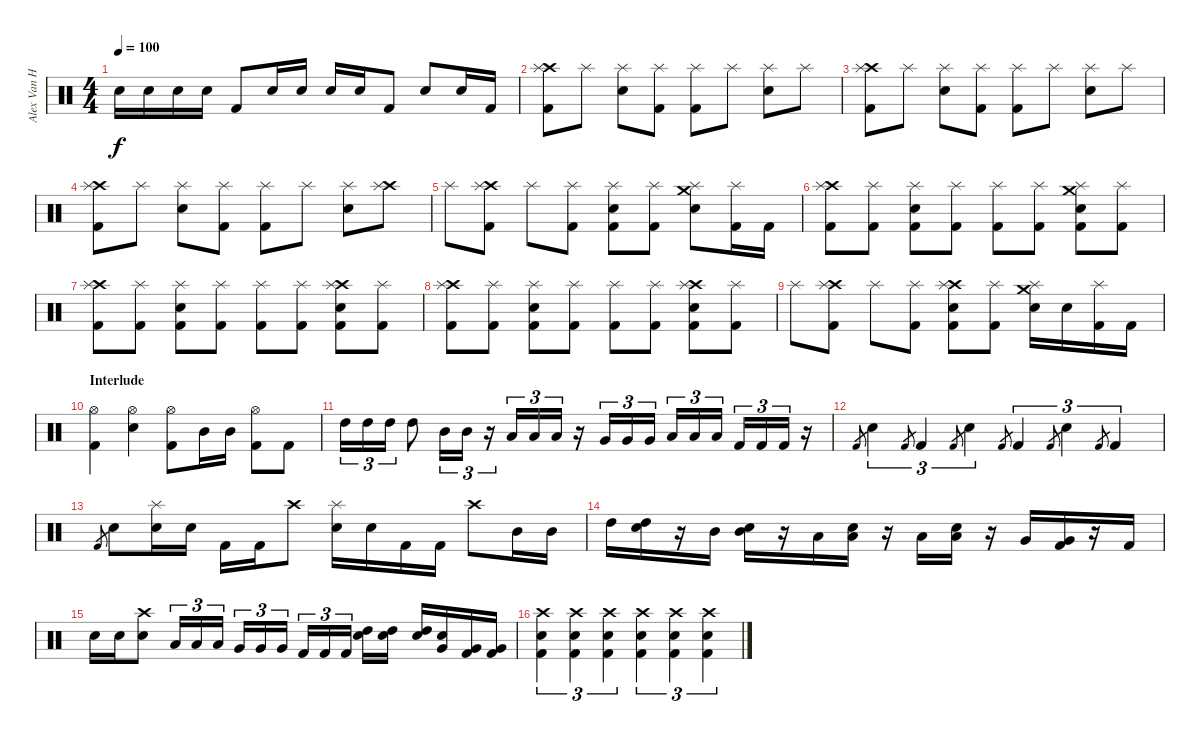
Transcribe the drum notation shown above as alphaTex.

\track ("Alex Van Halen" "Alex Van H") {instrument percussion}
\staff {score}
\articulation defaults
\ts (4 4)
\tempo 100
\clef neutral
\ks c "Electric Snare (hit)".16{dy f} "Electric Snare (hit)".16 "Snare (hit) 2".16 "Snare (hit) 2".16 "Kick (hit) 2".8 "Electric Snare (hit)".16 "Electric Snare (hit)".16 "Snare (hit) 2".16 "Snare (hit) 2".16 "Kick (hit) 2".8 "Snare (hit) 2".8 "Snare (hit) 2".16 "Kick (hit) 2".16
|
("Crash high (hit)" "Kick (hit) 2" "Splash (hit)").8 "Splash (hit)".8 ("Snare (hit) 2" "Splash (hit)").8 ("Kick (hit) 2" "Splash (hit)").8 ("Kick (hit) 2" "Splash (hit)").8 "Splash (hit)".8 ("Snare (hit) 2" "Splash (hit)").8 "Splash (hit)".8 |
("Crash high (hit)" "Kick (hit) 2" "Splash (hit)").8 "Splash (hit)".8 ("Snare (hit) 2" "Splash (hit)").8 ("Kick (hit) 2" "Splash (hit)").8 ("Kick (hit) 2" "Splash (hit)").8 "Splash (hit)".8 ("Snare (hit) 2" "Splash (hit)").8 "Splash (hit)".8 |
("Crash high (hit)" "Kick (hit) 2" "Splash (hit)").8 "Splash (hit)".8 ("Snare (hit) 2" "Splash (hit)").8 ("Kick (hit) 2" "Splash (hit)").8 ("Kick (hit) 2" "Splash (hit)").8 "Splash (hit)".8 ("Snare (hit) 2" "Splash (hit)").8 ("Crash high (hit)" "Splash (hit)").8 |
"Splash (hit)".8 ("Crash high (hit)" "Kick (hit) 2" "Splash (hit)").8 "Splash (hit)".8 ("Kick (hit) 2" "Splash (hit)").8 ("Snare (hit) 2" "Kick (hit) 2" "Splash (hit)").8 ("Kick (hit) 2" "Splash (hit)").8 ("Crash medium (hit)" "Snare (hit) 2" "Splash (hit)").8 ("Kick (hit) 2" "Splash (hit)").16 "Kick (hit) 2".16 |
("Crash high (hit)" "Kick (hit) 2" "Splash (hit)").8 ("Kick (hit) 2" "Splash (hit)").8 ("Snare (hit) 2" "Kick (hit) 2" "Splash (hit)").8 ("Kick (hit) 2" "Splash (hit)").8 ("Kick (hit) 2" "Splash (hit)").8 ("Kick (hit) 2" "Splash (hit)").8 ("Crash medium (hit)" "Snare (hit) 2" "Kick (hit) 2" "Splash (hit)").8 ("Kick (hit) 2" "Splash (hit)").8 |
("Crash high (hit)" "Kick (hit) 2" "Splash (hit)").8 ("Kick (hit) 2" "Splash (hit)").8 ("Snare (hit) 2" "Kick (hit) 2" "Splash (hit)").8 ("Kick (hit) 2" "Splash (hit)").8 ("Kick (hit) 2" "Splash (hit)").8 ("Kick (hit) 2" "Splash (hit)").8 ("Crash high (hit)" "Snare (hit) 2" "Kick (hit) 2" "Splash (hit)").8 ("Kick (hit) 2" "Splash (hit)").8 |
("Crash high (hit)" "Kick (hit) 2" "Splash (hit)").8 ("Kick (hit) 2" "Splash (hit)").8 ("Snare (hit) 2" "Kick (hit) 2" "Splash (hit)").8 ("Kick (hit) 2" "Splash (hit)").8 ("Kick (hit) 2" "Splash (hit)").8 ("Kick (hit) 2" "Splash (hit)").8 ("Crash high (hit)" "Snare (hit) 2" "Kick (hit) 2" "Splash (hit)").8 ("Kick (hit) 2" "Splash (hit)").8 |
"Splash (hit)".8 ("Crash high (hit)" "Kick (hit) 2" "Splash (hit)").8 "Splash (hit)".8 ("Kick (hit) 2" "Splash (hit)").8 ("Crash high (hit)" "Snare (hit) 2" "Kick (hit) 2" "Splash (hit)").8 ("Kick (hit) 2" "Splash (hit)").8 ("Crash medium (hit)" "Snare (hit) 2" "Splash (hit)").16 "Snare (hit) 2".16 ("Kick (hit) 2" "Splash (hit)").16 "Kick (hit) 2".16 |
\section ("" "Interlude")
("Kick (hit) 2" "Hi-Hat (open)").4 ("Snare (hit) 2" "Hi-Hat (open)").4 ("Kick (hit) 2" "Hi-Hat (open)").8 "Mid Tom (hit)".16 "Mid Tom (hit)".16 ("Kick (hit) 2" "Hi-Hat (open)").8 "Kick (hit) 2".8 |
"High Tom (hit)".16{tu (3 2)} "High Tom (hit)".16{tu (3 2)} "High Tom (hit)".16{tu (3 2)} "High Tom (hit)".8 "Mid Tom (hit)".16{tu (3 2)} "Mid Tom (hit)".16{tu (3 2)} r.16{tu (3 2)} "Low Tom (hit)".16{tu (3 2)} "Low Tom (hit)".16{tu (3 2)} "Low Tom (hit)".16{tu (3 2)} r.16 "Very Low Tom (hit)".16{tu (3 2)} "Very Low Tom (hit)".16{tu (3 2)} "Very Low Tom (hit)".16{tu (3 2)} "Low Floor Tom (hit)".16{tu (3 2)} "Low Floor Tom (hit)".16{tu (3 2)} "Low Floor Tom (hit)".16{tu (3 2)} "Kick (hit) 2".16{tu (3 2)} "Kick (hit) 2".16{tu (3 2)} "Kick (hit) 2".16{tu (3 2)} r.16 |
"Kick (hit) 2".8{gr} "Snare (hit) 2".4{tu (3 2)} "Kick (hit) 2".8{gr} "Kick (hit) 2".4{tu (3 2)} "Kick (hit) 2".8{gr} "Snare (hit) 2".4{tu (3 2)} "Kick (hit) 2".8{gr} "Kick (hit) 2".4{tu (3 2)} "Kick (hit) 2".8{gr} "Snare (hit) 2".4{tu (3 2)} "Kick (hit) 2".8{gr} "Kick (hit) 2".4{tu (3 2)} |
"Kick (hit) 2".8{gr} "Snare (hit) 2".8 ("Snare (hit) 2" "Splash (hit)").16 "Snare (hit) 2".16 "Kick (hit) 2".16 "Kick (hit) 2".16 "Crash high (hit)".8 ("Snare (hit) 2" "Splash (hit)").16 "Snare (hit) 2".16 "Kick (hit) 2".16 "Kick (hit) 2".16 "Crash high (hit)".8 "Mid Tom (hit)".16 "Mid Tom (hit)".16 |
"High Tom (hit)".16 ("Electric Snare (hit)" "High Tom (hit)").16 r.16 "Mid Tom (hit)".16 ("Snare (hit) 2" "Mid Tom (hit)").16 r.16 "Low Tom (hit)".16 ("Electric Snare (hit)" "Low Tom (hit)").16 r.16 "Low Tom (hit)".16 ("Snare (hit) 2" "Low Tom (hit)").16 r.16 "Very Low Tom (hit)".16 ("Very Low Tom (hit)" "Kick (hit) 2").16 r.16 "Kick (hit) 2".16 |
"Snare (hit) 2".16 "Snare (hit) 2".16 ("Crash high (hit)" "Snare (hit) 2").8 "Low Tom (hit)".16{tu (3 2)} "Low Tom (hit)".16{tu (3 2)} "Low Tom (hit)".16{tu (3 2)} "Very Low Tom (hit)".16{tu (3 2)} "Very Low Tom (hit)".16{tu (3 2)} "Very Low Tom (hit)".16{tu (3 2)} "Kick (hit) 2".16{tu (3 2)} "Kick (hit) 2".16{tu (3 2)} "Kick (hit) 2".16{tu (3 2)} ("Snare (hit) 2" "High Tom (hit)").16 ("Snare (hit) 2" "High Tom (hit)").16 ("Snare (hit) 2" "High Tom (hit)").16 ("Snare (hit) 2" "Very Low Tom (hit)").16 ("Kick (hit) 2" "Very Low Tom (hit)").16 ("Kick (hit) 2" "Very Low Tom (hit)").16 |
("Crash high (hit)" "Snare (hit) 2" "Kick (hit) 2").4{tu (3 2)} ("Crash high (hit)" "Snare (hit) 2" "Kick (hit) 2").4{tu (3 2)} ("Crash high (hit)" "Snare (hit) 2" "Kick (hit) 2").4{tu (3 2)} ("Crash high (hit)" "Snare (hit) 2" "Kick (hit) 2").4{tu (3 2)} ("Crash high (hit)" "Snare (hit) 2" "Kick (hit) 2").4{tu (3 2)} ("Crash high (hit)" "Snare (hit) 2" "Kick (hit) 2").4{tu (3 2)}
